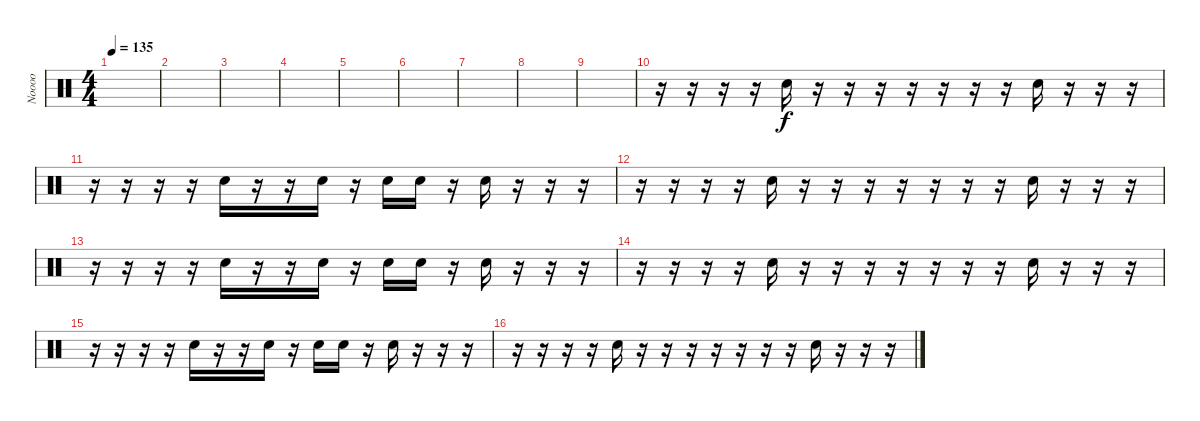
\track ("Noooo" "Noooo") {instrument percussion}
\staff {score}
\articulation defaults
\ts (4 4)
\tempo 135
\clef neutral
\ks c
|
|
|
|
|
|
|
|
|
r.16 r.16 r.16 r.16 "Hand Clap (hit)".16 r.16 r.16 r.16 r.16 r.16 r.16 r.16 "Hand Clap (hit)".16 r.16 r.16 r.16 |
r.16 r.16 r.16 r.16 "Hand Clap (hit)".16 r.16 r.16 "Hand Clap (hit)".16 r.16 "Hand Clap (hit)".16 "Hand Clap (hit)".16 r.16 "Hand Clap (hit)".16 r.16 r.16 r.16 |
r.16 r.16 r.16 r.16 "Hand Clap (hit)".16 r.16 r.16 r.16 r.16 r.16 r.16 r.16 "Hand Clap (hit)".16 r.16 r.16 r.16 |
r.16 r.16 r.16 r.16 "Hand Clap (hit)".16 r.16 r.16 "Hand Clap (hit)".16 r.16 "Hand Clap (hit)".16 "Hand Clap (hit)".16 r.16 "Hand Clap (hit)".16 r.16 r.16 r.16 |
r.16 r.16 r.16 r.16 "Hand Clap (hit)".16 r.16 r.16 r.16 r.16 r.16 r.16 r.16 "Hand Clap (hit)".16 r.16 r.16 r.16 |
r.16 r.16 r.16 r.16 "Hand Clap (hit)".16 r.16 r.16 "Hand Clap (hit)".16 r.16 "Hand Clap (hit)".16 "Hand Clap (hit)".16 r.16 "Hand Clap (hit)".16 r.16 r.16 r.16 |
r.16 r.16 r.16 r.16 "Hand Clap (hit)".16 r.16 r.16 r.16 r.16 r.16 r.16 r.16 "Hand Clap (hit)".16 r.16 r.16 r.16
